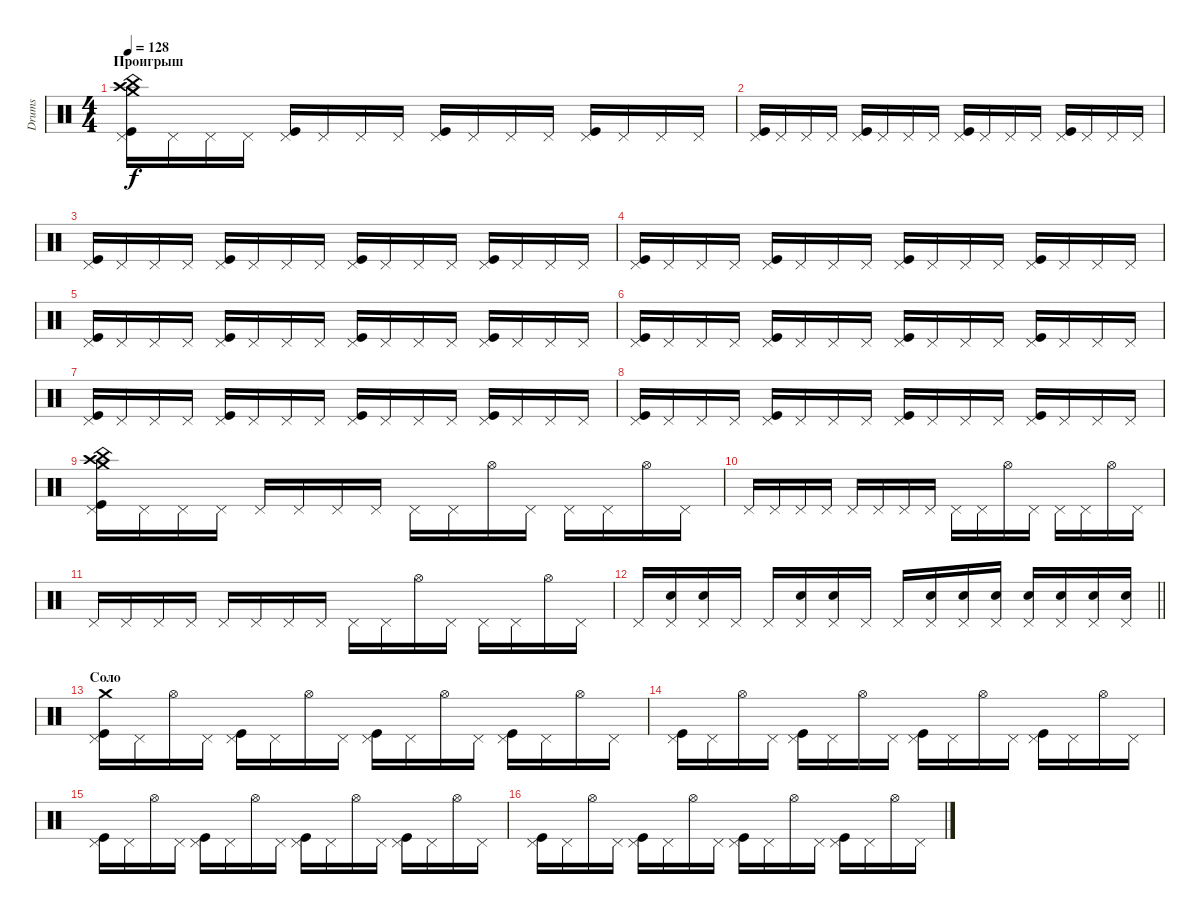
\track ("Drums" "Drums") {instrument percussion}
\staff {score}
\articulation defaults
\ts (4 4)
\section ("" "Проигрыш")
\tempo 128
\clef neutral
\ks c
("Kick (hit)" "Pedal Hi-Hat (hit)" "Crash medium (hit)" "China (hit)" "Crash high (hit)").16{dy f} "Pedal Hi-Hat (hit)".16 "Pedal Hi-Hat (hit)".16 "Pedal Hi-Hat (hit)".16 ("Kick (hit)" "Pedal Hi-Hat (hit)").16 "Pedal Hi-Hat (hit)".16 "Pedal Hi-Hat (hit)".16 "Pedal Hi-Hat (hit)".16 ("Kick (hit)" "Pedal Hi-Hat (hit)").16 "Pedal Hi-Hat (hit)".16 "Pedal Hi-Hat (hit)".16 "Pedal Hi-Hat (hit)".16 ("Kick (hit)" "Pedal Hi-Hat (hit)").16 "Pedal Hi-Hat (hit)".16 "Pedal Hi-Hat (hit)".16 "Pedal Hi-Hat (hit)".16 |
("Kick (hit)" "Pedal Hi-Hat (hit)").16 "Pedal Hi-Hat (hit)".16 "Pedal Hi-Hat (hit)".16 "Pedal Hi-Hat (hit)".16 ("Kick (hit)" "Pedal Hi-Hat (hit)").16 "Pedal Hi-Hat (hit)".16 "Pedal Hi-Hat (hit)".16 "Pedal Hi-Hat (hit)".16 ("Kick (hit)" "Pedal Hi-Hat (hit)").16 "Pedal Hi-Hat (hit)".16 "Pedal Hi-Hat (hit)".16 "Pedal Hi-Hat (hit)".16 ("Kick (hit)" "Pedal Hi-Hat (hit)").16 "Pedal Hi-Hat (hit)".16 "Pedal Hi-Hat (hit)".16 "Pedal Hi-Hat (hit)".16 |
("Kick (hit)" "Pedal Hi-Hat (hit)").16 "Pedal Hi-Hat (hit)".16 "Pedal Hi-Hat (hit)".16 "Pedal Hi-Hat (hit)".16 ("Kick (hit)" "Pedal Hi-Hat (hit)").16 "Pedal Hi-Hat (hit)".16 "Pedal Hi-Hat (hit)".16 "Pedal Hi-Hat (hit)".16 ("Kick (hit)" "Pedal Hi-Hat (hit)").16 "Pedal Hi-Hat (hit)".16 "Pedal Hi-Hat (hit)".16 "Pedal Hi-Hat (hit)".16 ("Kick (hit)" "Pedal Hi-Hat (hit)").16 "Pedal Hi-Hat (hit)".16 "Pedal Hi-Hat (hit)".16 "Pedal Hi-Hat (hit)".16 |
("Kick (hit)" "Pedal Hi-Hat (hit)").16 "Pedal Hi-Hat (hit)".16 "Pedal Hi-Hat (hit)".16 "Pedal Hi-Hat (hit)".16 ("Kick (hit)" "Pedal Hi-Hat (hit)").16 "Pedal Hi-Hat (hit)".16 "Pedal Hi-Hat (hit)".16 "Pedal Hi-Hat (hit)".16 ("Kick (hit)" "Pedal Hi-Hat (hit)").16 "Pedal Hi-Hat (hit)".16 "Pedal Hi-Hat (hit)".16 "Pedal Hi-Hat (hit)".16 ("Kick (hit)" "Pedal Hi-Hat (hit)").16 "Pedal Hi-Hat (hit)".16 "Pedal Hi-Hat (hit)".16 "Pedal Hi-Hat (hit)".16 |
("Kick (hit)" "Pedal Hi-Hat (hit)").16 "Pedal Hi-Hat (hit)".16 "Pedal Hi-Hat (hit)".16 "Pedal Hi-Hat (hit)".16 ("Kick (hit)" "Pedal Hi-Hat (hit)").16 "Pedal Hi-Hat (hit)".16 "Pedal Hi-Hat (hit)".16 "Pedal Hi-Hat (hit)".16 ("Kick (hit)" "Pedal Hi-Hat (hit)").16 "Pedal Hi-Hat (hit)".16 "Pedal Hi-Hat (hit)".16 "Pedal Hi-Hat (hit)".16 ("Kick (hit)" "Pedal Hi-Hat (hit)").16 "Pedal Hi-Hat (hit)".16 "Pedal Hi-Hat (hit)".16 "Pedal Hi-Hat (hit)".16 |
("Kick (hit)" "Pedal Hi-Hat (hit)").16 "Pedal Hi-Hat (hit)".16 "Pedal Hi-Hat (hit)".16 "Pedal Hi-Hat (hit)".16 ("Kick (hit)" "Pedal Hi-Hat (hit)").16 "Pedal Hi-Hat (hit)".16 "Pedal Hi-Hat (hit)".16 "Pedal Hi-Hat (hit)".16 ("Kick (hit)" "Pedal Hi-Hat (hit)").16 "Pedal Hi-Hat (hit)".16 "Pedal Hi-Hat (hit)".16 "Pedal Hi-Hat (hit)".16 ("Kick (hit)" "Pedal Hi-Hat (hit)").16 "Pedal Hi-Hat (hit)".16 "Pedal Hi-Hat (hit)".16 "Pedal Hi-Hat (hit)".16 |
("Kick (hit)" "Pedal Hi-Hat (hit)").16 "Pedal Hi-Hat (hit)".16 "Pedal Hi-Hat (hit)".16 "Pedal Hi-Hat (hit)".16 ("Kick (hit)" "Pedal Hi-Hat (hit)").16 "Pedal Hi-Hat (hit)".16 "Pedal Hi-Hat (hit)".16 "Pedal Hi-Hat (hit)".16 ("Kick (hit)" "Pedal Hi-Hat (hit)").16 "Pedal Hi-Hat (hit)".16 "Pedal Hi-Hat (hit)".16 "Pedal Hi-Hat (hit)".16 ("Kick (hit)" "Pedal Hi-Hat (hit)").16 "Pedal Hi-Hat (hit)".16 "Pedal Hi-Hat (hit)".16 "Pedal Hi-Hat (hit)".16 |
("Kick (hit)" "Pedal Hi-Hat (hit)").16 "Pedal Hi-Hat (hit)".16 "Pedal Hi-Hat (hit)".16 "Pedal Hi-Hat (hit)".16 ("Kick (hit)" "Pedal Hi-Hat (hit)").16 "Pedal Hi-Hat (hit)".16 "Pedal Hi-Hat (hit)".16 "Pedal Hi-Hat (hit)".16 ("Kick (hit)" "Pedal Hi-Hat (hit)").16 "Pedal Hi-Hat (hit)".16 "Pedal Hi-Hat (hit)".16 "Pedal Hi-Hat (hit)".16 ("Kick (hit)" "Pedal Hi-Hat (hit)").16 "Pedal Hi-Hat (hit)".16 "Pedal Hi-Hat (hit)".16 "Pedal Hi-Hat (hit)".16 |
("Kick (hit)" "Pedal Hi-Hat (hit)" "Crash medium (hit)" "China (hit)" "Crash high (hit)").16 "Pedal Hi-Hat (hit)".16 "Pedal Hi-Hat (hit)".16 "Pedal Hi-Hat (hit)".16 "Pedal Hi-Hat (hit)".16 "Pedal Hi-Hat (hit)".16 "Pedal Hi-Hat (hit)".16 "Pedal Hi-Hat (hit)".16 "Pedal Hi-Hat (hit)".16 "Pedal Hi-Hat (hit)".16 "Hi-Hat (open)".16 "Pedal Hi-Hat (hit)".16 "Pedal Hi-Hat (hit)".16 "Pedal Hi-Hat (hit)".16 "Hi-Hat (open)".16 "Pedal Hi-Hat (hit)".16 |
"Pedal Hi-Hat (hit)".16 "Pedal Hi-Hat (hit)".16 "Pedal Hi-Hat (hit)".16 "Pedal Hi-Hat (hit)".16 "Pedal Hi-Hat (hit)".16 "Pedal Hi-Hat (hit)".16 "Pedal Hi-Hat (hit)".16 "Pedal Hi-Hat (hit)".16 "Pedal Hi-Hat (hit)".16 "Pedal Hi-Hat (hit)".16 "Hi-Hat (open)".16 "Pedal Hi-Hat (hit)".16 "Pedal Hi-Hat (hit)".16 "Pedal Hi-Hat (hit)".16 "Hi-Hat (open)".16 "Pedal Hi-Hat (hit)".16 |
"Pedal Hi-Hat (hit)".16 "Pedal Hi-Hat (hit)".16 "Pedal Hi-Hat (hit)".16 "Pedal Hi-Hat (hit)".16 "Pedal Hi-Hat (hit)".16 "Pedal Hi-Hat (hit)".16 "Pedal Hi-Hat (hit)".16 "Pedal Hi-Hat (hit)".16 "Pedal Hi-Hat (hit)".16 "Pedal Hi-Hat (hit)".16 "Hi-Hat (open)".16 "Pedal Hi-Hat (hit)".16 "Pedal Hi-Hat (hit)".16 "Pedal Hi-Hat (hit)".16 "Hi-Hat (open)".16 "Pedal Hi-Hat (hit)".16 |
\barLineRight lightlight "Pedal Hi-Hat (hit)".16
("Pedal Hi-Hat (hit)" "Snare (hit) 2").16 ("Pedal Hi-Hat (hit)" "Snare (hit) 2").16 "Pedal Hi-Hat (hit)".16 "Pedal Hi-Hat (hit)".16 ("Pedal Hi-Hat (hit)" "Snare (hit) 2").16 ("Pedal Hi-Hat (hit)" "Snare (hit) 2").16 "Pedal Hi-Hat (hit)".16 "Pedal Hi-Hat (hit)".16 ("Pedal Hi-Hat (hit)" "Snare (hit) 2").16 ("Pedal Hi-Hat (hit)" "Snare (hit) 2").16 ("Pedal Hi-Hat (hit)" "Snare (hit) 2").16 ("Pedal Hi-Hat (hit)" "Snare (hit) 2").16 ("Pedal Hi-Hat (hit)" "Snare (hit) 2").16 ("Pedal Hi-Hat (hit)" "Snare (hit) 2").16 ("Pedal Hi-Hat (hit)" "Snare (hit) 2").16 |
\section ("" "Соло")
("Kick (hit)" "Pedal Hi-Hat (hit)" "Crash medium (hit)").16 "Pedal Hi-Hat (hit)".16 "Hi-Hat (open)".16 "Pedal Hi-Hat (hit)".16 ("Kick (hit)" "Pedal Hi-Hat (hit)").16 "Pedal Hi-Hat (hit)".16 "Hi-Hat (open)".16 "Pedal Hi-Hat (hit)".16 ("Kick (hit)" "Pedal Hi-Hat (hit)").16 "Pedal Hi-Hat (hit)".16 "Hi-Hat (open)".16 "Pedal Hi-Hat (hit)".16 ("Kick (hit)" "Pedal Hi-Hat (hit)").16 "Pedal Hi-Hat (hit)".16 "Hi-Hat (open)".16 "Pedal Hi-Hat (hit)".16 |
("Kick (hit)" "Pedal Hi-Hat (hit)").16 "Pedal Hi-Hat (hit)".16 "Hi-Hat (open)".16 "Pedal Hi-Hat (hit)".16 ("Kick (hit)" "Pedal Hi-Hat (hit)").16 "Pedal Hi-Hat (hit)".16 "Hi-Hat (open)".16 "Pedal Hi-Hat (hit)".16 ("Kick (hit)" "Pedal Hi-Hat (hit)").16 "Pedal Hi-Hat (hit)".16 "Hi-Hat (open)".16 "Pedal Hi-Hat (hit)".16 ("Kick (hit)" "Pedal Hi-Hat (hit)").16 "Pedal Hi-Hat (hit)".16 "Hi-Hat (open)".16 "Pedal Hi-Hat (hit)".16 |
("Kick (hit)" "Pedal Hi-Hat (hit)").16 "Pedal Hi-Hat (hit)".16 "Hi-Hat (open)".16 "Pedal Hi-Hat (hit)".16 ("Kick (hit)" "Pedal Hi-Hat (hit)").16 "Pedal Hi-Hat (hit)".16 "Hi-Hat (open)".16 "Pedal Hi-Hat (hit)".16 ("Kick (hit)" "Pedal Hi-Hat (hit)").16 "Pedal Hi-Hat (hit)".16 "Hi-Hat (open)".16 "Pedal Hi-Hat (hit)".16 ("Kick (hit)" "Pedal Hi-Hat (hit)").16 "Pedal Hi-Hat (hit)".16 "Hi-Hat (open)".16 "Pedal Hi-Hat (hit)".16 |
("Kick (hit)" "Pedal Hi-Hat (hit)").16 "Pedal Hi-Hat (hit)".16 "Hi-Hat (open)".16 "Pedal Hi-Hat (hit)".16 ("Kick (hit)" "Pedal Hi-Hat (hit)").16 "Pedal Hi-Hat (hit)".16 "Hi-Hat (open)".16 "Pedal Hi-Hat (hit)".16 ("Kick (hit)" "Pedal Hi-Hat (hit)").16 "Pedal Hi-Hat (hit)".16 "Hi-Hat (open)".16 "Pedal Hi-Hat (hit)".16 ("Kick (hit)" "Pedal Hi-Hat (hit)").16 "Pedal Hi-Hat (hit)".16 "Hi-Hat (open)".16 "Pedal Hi-Hat (hit)".16
